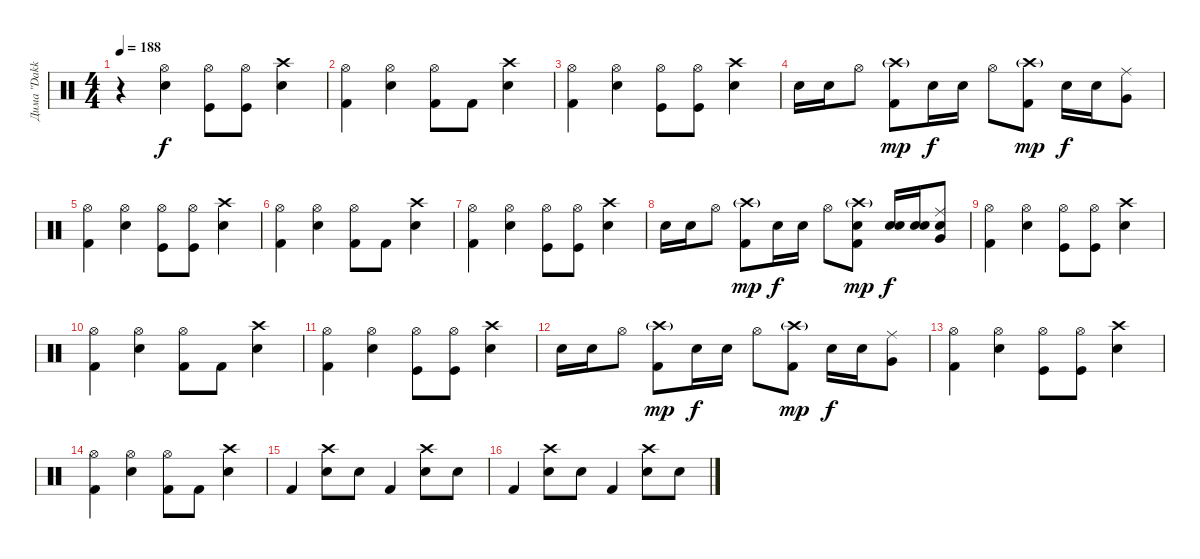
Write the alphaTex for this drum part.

\track ("Дима \"Dakkar\" Кеменов" "Дима \"Dakk") {instrument percussion}
\staff
\articulation defaults
\ts (4 4)
\tempo 188
\clef neutral
\ks c
r.4{dy f} ("Hi-Hat (open)" "Electric Snare (hit)").4 ("Hi-Hat (open)" "Kick (hit)").8 ("Hi-Hat (open)" "Kick (hit)").8 ("Crash high (hit)" "Electric Snare (hit)").4 |
("Hi-Hat (open)" "Kick (hit) 2").4 ("Hi-Hat (open)" "Electric Snare (hit)").4 ("Hi-Hat (open)" "Kick (hit) 2").8 "Kick (hit) 2".8 ("Crash high (hit)" "Electric Snare (hit)").4 |
("Hi-Hat (open)" "Kick (hit) 2").4 ("Hi-Hat (open)" "Electric Snare (hit)").4 ("Hi-Hat (open)" "Kick (hit)").8 ("Hi-Hat (open)" "Kick (hit)").8 ("Crash high (hit)" "Electric Snare (hit)").4 |
"Electric Snare (hit)".16 "Electric Snare (hit)".16 "Hi-Hat (open)".8 ("Crash high (hit)"{g} "Kick (hit) 2").8{dy mp} "Electric Snare (hit)".16{dy f} "Electric Snare (hit)".16 "Hi-Hat (open)".8 ("Crash high (hit)"{g} "Kick (hit) 2").8{dy mp} "Electric Snare (hit)".16{dy f} "Electric Snare (hit)".16 ("Ride (middle)" "Very Low Tom (hit)").8 |
("Hi-Hat (open)" "Kick (hit) 2").4 ("Hi-Hat (open)" "Electric Snare (hit)").4 ("Hi-Hat (open)" "Kick (hit)").8 ("Hi-Hat (open)" "Kick (hit)").8 ("Crash high (hit)" "Electric Snare (hit)").4 |
("Hi-Hat (open)" "Kick (hit) 2").4 ("Hi-Hat (open)" "Electric Snare (hit)").4 ("Hi-Hat (open)" "Kick (hit) 2").8 "Kick (hit) 2".8 ("Crash high (hit)" "Electric Snare (hit)").4 |
("Hi-Hat (open)" "Kick (hit) 2").4 ("Hi-Hat (open)" "Electric Snare (hit)").4 ("Hi-Hat (open)" "Kick (hit)").8 ("Hi-Hat (open)" "Kick (hit)").8 ("Crash high (hit)" "Electric Snare (hit)").4 |
"Electric Snare (hit)".16 "Electric Snare (hit)".16 "Hi-Hat (open)".8 ("Crash high (hit)"{g} "Kick (hit) 2").8{dy mp} "Electric Snare (hit)".16{dy f} "Electric Snare (hit)".16 "Hi-Hat (open)".8 ("Electric Snare (hit)" "Crash high (hit)"{g} "Kick (hit) 2").8{dy mp} ("Electric Snare (hit)" "Electric Snare (hit)").16{dy f} ("Electric Snare (hit)" "Electric Snare (hit)").16 ("Electric Snare (hit)" "Ride (middle)" "Very Low Tom (hit)").8 |
("Hi-Hat (open)" "Kick (hit) 2").4 ("Hi-Hat (open)" "Electric Snare (hit)").4 ("Hi-Hat (open)" "Kick (hit)").8 ("Hi-Hat (open)" "Kick (hit)").8 ("Crash high (hit)" "Electric Snare (hit)").4 |
("Hi-Hat (open)" "Kick (hit) 2").4 ("Hi-Hat (open)" "Electric Snare (hit)").4 ("Hi-Hat (open)" "Kick (hit) 2").8 "Kick (hit) 2".8 ("Crash high (hit)" "Electric Snare (hit)").4 |
("Hi-Hat (open)" "Kick (hit) 2").4 ("Hi-Hat (open)" "Electric Snare (hit)").4 ("Hi-Hat (open)" "Kick (hit)").8 ("Hi-Hat (open)" "Kick (hit)").8 ("Crash high (hit)" "Electric Snare (hit)").4 |
"Electric Snare (hit)".16 "Electric Snare (hit)".16 "Hi-Hat (open)".8 ("Crash high (hit)"{g} "Kick (hit) 2").8{dy mp} "Electric Snare (hit)".16{dy f} "Electric Snare (hit)".16 "Hi-Hat (open)".8 ("Crash high (hit)"{g} "Kick (hit) 2").8{dy mp} "Electric Snare (hit)".16{dy f} "Electric Snare (hit)".16 ("Ride (middle)" "Very Low Tom (hit)").8 |
("Hi-Hat (open)" "Kick (hit) 2").4 ("Hi-Hat (open)" "Electric Snare (hit)").4 ("Hi-Hat (open)" "Kick (hit)").8 ("Hi-Hat (open)" "Kick (hit)").8 ("Crash high (hit)" "Electric Snare (hit)").4 |
("Hi-Hat (open)" "Kick (hit) 2").4 ("Hi-Hat (open)" "Electric Snare (hit)").4 ("Hi-Hat (open)" "Kick (hit) 2").8 "Kick (hit) 2".8 ("Crash high (hit)" "Electric Snare (hit)").4 |
"Kick (hit) 2".4 ("Crash high (hit)" "Electric Snare (hit)").8 "Electric Snare (hit)".8 "Kick (hit) 2".4 ("Crash high (hit)" "Electric Snare (hit)").8 "Electric Snare (hit)".8 |
"Kick (hit) 2".4 ("Crash high (hit)" "Electric Snare (hit)").8 "Electric Snare (hit)".8 "Kick (hit) 2".4 ("Crash high (hit)" "Electric Snare (hit)").8 "Electric Snare (hit)".8
